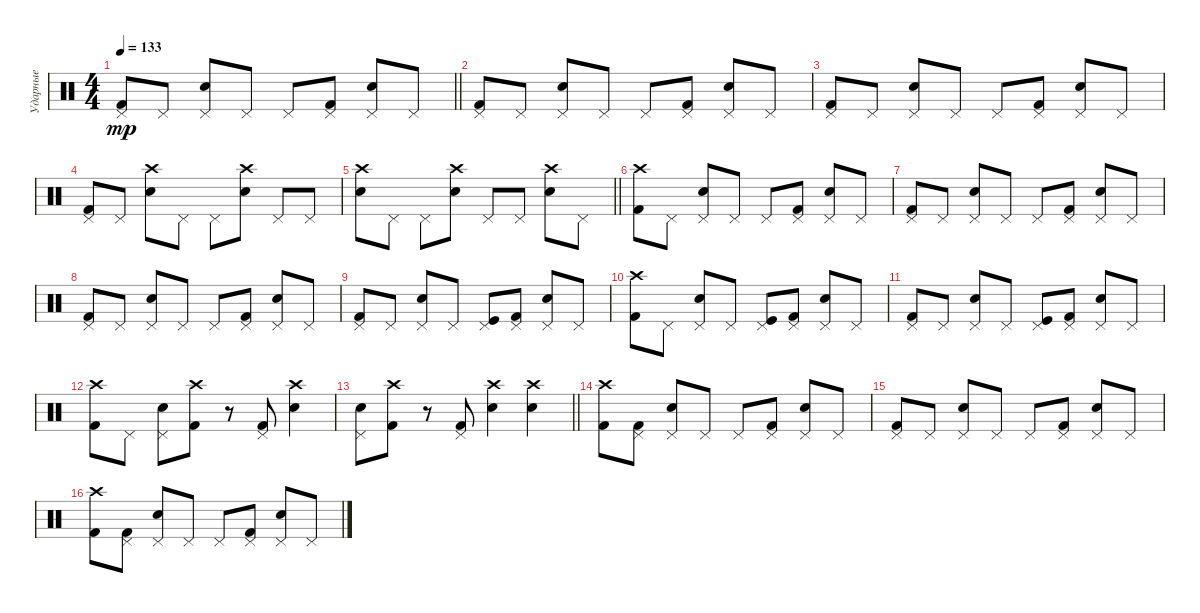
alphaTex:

\track ("Ударные" "Ударные") {instrument percussion}
\staff {score}
\articulation defaults
\ts (4 4)
\tempo 133
\clef neutral
\barLineRight lightlight
\ks c
("Kick (hit) 2" "Pedal Hi-Hat (hit)").8{dy mp} "Pedal Hi-Hat (hit)".8 ("Electric Snare (hit)" "Pedal Hi-Hat (hit)").8 "Pedal Hi-Hat (hit)".8 "Pedal Hi-Hat (hit)".8 ("Kick (hit) 2" "Pedal Hi-Hat (hit)").8 ("Electric Snare (hit)" "Pedal Hi-Hat (hit)").8 "Pedal Hi-Hat (hit)".8 |
("Kick (hit) 2" "Pedal Hi-Hat (hit)").8 "Pedal Hi-Hat (hit)".8 ("Electric Snare (hit)" "Pedal Hi-Hat (hit)").8 "Pedal Hi-Hat (hit)".8 "Pedal Hi-Hat (hit)".8 ("Kick (hit) 2" "Pedal Hi-Hat (hit)").8 ("Electric Snare (hit)" "Pedal Hi-Hat (hit)").8 "Pedal Hi-Hat (hit)".8 |
("Kick (hit) 2" "Pedal Hi-Hat (hit)").8 "Pedal Hi-Hat (hit)".8 ("Electric Snare (hit)" "Pedal Hi-Hat (hit)").8 "Pedal Hi-Hat (hit)".8 "Pedal Hi-Hat (hit)".8 ("Kick (hit) 2" "Pedal Hi-Hat (hit)").8 ("Electric Snare (hit)" "Pedal Hi-Hat (hit)").8 "Pedal Hi-Hat (hit)".8 |
("Kick (hit) 2" "Pedal Hi-Hat (hit)").8 "Pedal Hi-Hat (hit)".8 ("Electric Snare (hit)" "Crash high (hit)").8 "Pedal Hi-Hat (hit)".8 "Pedal Hi-Hat (hit)".8 ("Electric Snare (hit)" "Crash high (hit)").8 "Pedal Hi-Hat (hit)".8 "Pedal Hi-Hat (hit)".8 |
\barLineRight lightlight
("Electric Snare (hit)" "Crash high (hit)").8 "Pedal Hi-Hat (hit)".8 "Pedal Hi-Hat (hit)".8 ("Electric Snare (hit)" "Crash high (hit)").8 "Pedal Hi-Hat (hit)".8 "Pedal Hi-Hat (hit)".8 ("Electric Snare (hit)" "Crash high (hit)").8 "Pedal Hi-Hat (hit)".8 |
("Kick (hit) 2" "Crash high (hit)").8 "Pedal Hi-Hat (hit)".8 ("Electric Snare (hit)" "Pedal Hi-Hat (hit)").8 "Pedal Hi-Hat (hit)".8 "Pedal Hi-Hat (hit)".8 ("Kick (hit) 2" "Pedal Hi-Hat (hit)").8 ("Electric Snare (hit)" "Pedal Hi-Hat (hit)").8 "Pedal Hi-Hat (hit)".8 |
("Kick (hit) 2" "Pedal Hi-Hat (hit)").8 "Pedal Hi-Hat (hit)".8 ("Electric Snare (hit)" "Pedal Hi-Hat (hit)").8 "Pedal Hi-Hat (hit)".8 "Pedal Hi-Hat (hit)".8 ("Kick (hit) 2" "Pedal Hi-Hat (hit)").8 ("Electric Snare (hit)" "Pedal Hi-Hat (hit)").8 "Pedal Hi-Hat (hit)".8 |
("Kick (hit) 2" "Pedal Hi-Hat (hit)").8 "Pedal Hi-Hat (hit)".8 ("Electric Snare (hit)" "Pedal Hi-Hat (hit)").8 "Pedal Hi-Hat (hit)".8 "Pedal Hi-Hat (hit)".8 ("Kick (hit) 2" "Pedal Hi-Hat (hit)").8 ("Electric Snare (hit)" "Pedal Hi-Hat (hit)").8 "Pedal Hi-Hat (hit)".8 |
("Kick (hit) 2" "Pedal Hi-Hat (hit)").8 "Pedal Hi-Hat (hit)".8 ("Electric Snare (hit)" "Pedal Hi-Hat (hit)").8 "Pedal Hi-Hat (hit)".8 ("Kick (hit)" "Pedal Hi-Hat (hit)").8 ("Kick (hit) 2" "Pedal Hi-Hat (hit)").8 ("Electric Snare (hit)" "Pedal Hi-Hat (hit)").8 "Pedal Hi-Hat (hit)".8 |
("Kick (hit) 2" "Crash high (hit)").8 "Pedal Hi-Hat (hit)".8 ("Electric Snare (hit)" "Pedal Hi-Hat (hit)").8 "Pedal Hi-Hat (hit)".8 ("Kick (hit)" "Pedal Hi-Hat (hit)").8 ("Kick (hit) 2" "Pedal Hi-Hat (hit)").8 ("Electric Snare (hit)" "Pedal Hi-Hat (hit)").8 "Pedal Hi-Hat (hit)".8 |
("Kick (hit) 2" "Pedal Hi-Hat (hit)").8 "Pedal Hi-Hat (hit)".8 ("Electric Snare (hit)" "Pedal Hi-Hat (hit)").8 "Pedal Hi-Hat (hit)".8 ("Kick (hit)" "Pedal Hi-Hat (hit)").8 ("Kick (hit) 2" "Pedal Hi-Hat (hit)").8 ("Electric Snare (hit)" "Pedal Hi-Hat (hit)").8 "Pedal Hi-Hat (hit)".8 |
("Kick (hit) 2" "Crash high (hit)").8 "Pedal Hi-Hat (hit)".8 ("Electric Snare (hit)" "Pedal Hi-Hat (hit)").8 ("Kick (hit) 2" "Crash high (hit)").8 r.8 ("Kick (hit) 2" "Pedal Hi-Hat (hit)").8 ("Electric Snare (hit)" "Crash high (hit)").4 |
\barLineRight lightlight
("Electric Snare (hit)" "Pedal Hi-Hat (hit)").8 ("Kick (hit) 2" "Crash high (hit)").8 r.8 ("Kick (hit) 2" "Pedal Hi-Hat (hit)").8 ("Electric Snare (hit)" "Crash high (hit)").4 ("Electric Snare (hit)" "Crash high (hit)").4 |
\section ("" "")
("Kick (hit) 2" "Crash high (hit)").8 ("Kick (hit) 2" "Pedal Hi-Hat (hit)").8 ("Electric Snare (hit)" "Pedal Hi-Hat (hit)").8 "Pedal Hi-Hat (hit)".8 "Pedal Hi-Hat (hit)".8 ("Kick (hit) 2" "Pedal Hi-Hat (hit)").8 ("Electric Snare (hit)" "Pedal Hi-Hat (hit)").8 "Pedal Hi-Hat (hit)".8 |
("Kick (hit) 2" "Pedal Hi-Hat (hit)").8 "Pedal Hi-Hat (hit)".8 ("Electric Snare (hit)" "Pedal Hi-Hat (hit)").8 "Pedal Hi-Hat (hit)".8 "Pedal Hi-Hat (hit)".8 ("Kick (hit) 2" "Pedal Hi-Hat (hit)").8 ("Electric Snare (hit)" "Pedal Hi-Hat (hit)").8 "Pedal Hi-Hat (hit)".8 |
("Kick (hit) 2" "Crash high (hit)").8 ("Kick (hit) 2" "Pedal Hi-Hat (hit)").8 ("Electric Snare (hit)" "Pedal Hi-Hat (hit)").8 "Pedal Hi-Hat (hit)".8 "Pedal Hi-Hat (hit)".8 ("Kick (hit) 2" "Pedal Hi-Hat (hit)").8 ("Electric Snare (hit)" "Pedal Hi-Hat (hit)").8 "Pedal Hi-Hat (hit)".8
